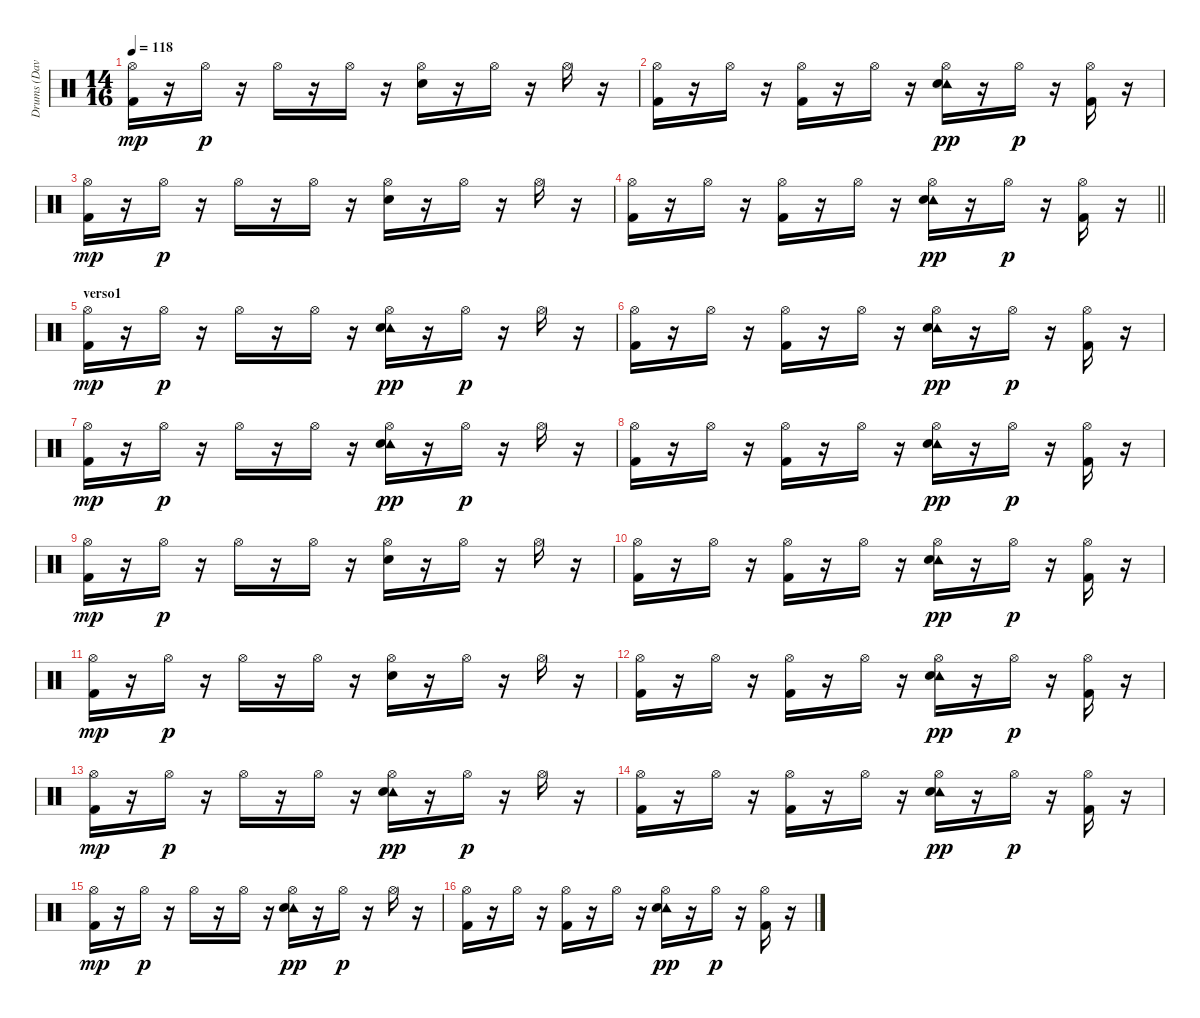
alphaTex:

\track ("Drums (Dave Turncrantz)" "Drums (Dav") {instrument percussion}
\staff {score}
\articulation defaults
\ts (14 16)
\tempo 118
\clef neutral
\ks c
("Hi-Hat (open)" "Kick (hit) 2").16{dy mp} r.16 "Hi-Hat (open)".16{dy p} r.16 "Hi-Hat (open)".16 r.16 "Hi-Hat (open)".16 r.16 ("Hi-Hat (open)" "Snare (hit) 2").16 r.16 "Hi-Hat (open)".16 r.16 "Hi-Hat (open)".16 r.16 |
("Hi-Hat (open)" "Kick (hit) 2").16 r.16 "Hi-Hat (open)".16 r.16 ("Hi-Hat (open)" "Kick (hit) 2").16 r.16 "Hi-Hat (open)".16 r.16 ("Hi-Hat (open)" "Tambourine (hit)" "Snare (hit) 2").16{dy pp} r.16 "Hi-Hat (open)".16{dy p} r.16 ("Hi-Hat (open)" "Kick (hit) 2").16 r.16 |
("Hi-Hat (open)" "Kick (hit) 2").16{dy mp} r.16 "Hi-Hat (open)".16{dy p} r.16 "Hi-Hat (open)".16 r.16 "Hi-Hat (open)".16 r.16 ("Hi-Hat (open)" "Snare (hit) 2").16 r.16 "Hi-Hat (open)".16 r.16 "Hi-Hat (open)".16 r.16 |
\barLineRight lightlight
("Hi-Hat (open)" "Kick (hit) 2").16 r.16 "Hi-Hat (open)".16 r.16 ("Hi-Hat (open)" "Kick (hit) 2").16 r.16 "Hi-Hat (open)".16 r.16 ("Hi-Hat (open)" "Tambourine (hit)" "Snare (hit) 2").16{dy pp} r.16 "Hi-Hat (open)".16{dy p} r.16 ("Hi-Hat (open)" "Kick (hit) 2").16 r.16 |
\section ("" "verso1")
("Hi-Hat (open)" "Kick (hit) 2").16{dy mp} r.16 "Hi-Hat (open)".16{dy p} r.16 "Hi-Hat (open)".16 r.16 "Hi-Hat (open)".16 r.16 ("Hi-Hat (open)" "Tambourine (hit)" "Snare (hit) 2").16{dy pp} r.16 "Hi-Hat (open)".16{dy p} r.16 "Hi-Hat (open)".16 r.16 |
("Hi-Hat (open)" "Kick (hit) 2").16 r.16 "Hi-Hat (open)".16 r.16 ("Hi-Hat (open)" "Kick (hit) 2").16 r.16 "Hi-Hat (open)".16 r.16 ("Hi-Hat (open)" "Tambourine (hit)" "Snare (hit) 2").16{dy pp} r.16 "Hi-Hat (open)".16{dy p} r.16 ("Hi-Hat (open)" "Kick (hit) 2").16 r.16 |
("Hi-Hat (open)" "Kick (hit) 2").16{dy mp} r.16 "Hi-Hat (open)".16{dy p} r.16 "Hi-Hat (open)".16 r.16 "Hi-Hat (open)".16 r.16 ("Hi-Hat (open)" "Tambourine (hit)" "Snare (hit) 2").16{dy pp} r.16 "Hi-Hat (open)".16{dy p} r.16 "Hi-Hat (open)".16 r.16 |
("Hi-Hat (open)" "Kick (hit) 2").16 r.16 "Hi-Hat (open)".16 r.16 ("Hi-Hat (open)" "Kick (hit) 2").16 r.16 "Hi-Hat (open)".16 r.16 ("Hi-Hat (open)" "Tambourine (hit)" "Snare (hit) 2").16{dy pp} r.16 "Hi-Hat (open)".16{dy p} r.16 ("Hi-Hat (open)" "Kick (hit) 2").16 r.16 |
("Hi-Hat (open)" "Kick (hit) 2").16{dy mp} r.16 "Hi-Hat (open)".16{dy p} r.16 "Hi-Hat (open)".16 r.16 "Hi-Hat (open)".16 r.16 ("Hi-Hat (open)" "Snare (hit) 2").16 r.16 "Hi-Hat (open)".16 r.16 "Hi-Hat (open)".16 r.16 |
("Hi-Hat (open)" "Kick (hit) 2").16 r.16 "Hi-Hat (open)".16 r.16 ("Hi-Hat (open)" "Kick (hit) 2").16 r.16 "Hi-Hat (open)".16 r.16 ("Hi-Hat (open)" "Tambourine (hit)" "Snare (hit) 2").16{dy pp} r.16 "Hi-Hat (open)".16{dy p} r.16 ("Hi-Hat (open)" "Kick (hit) 2").16 r.16 |
("Hi-Hat (open)" "Kick (hit) 2").16{dy mp} r.16 "Hi-Hat (open)".16{dy p} r.16 "Hi-Hat (open)".16 r.16 "Hi-Hat (open)".16 r.16 ("Hi-Hat (open)" "Snare (hit) 2").16 r.16 "Hi-Hat (open)".16 r.16 "Hi-Hat (open)".16 r.16 |
("Hi-Hat (open)" "Kick (hit) 2").16 r.16 "Hi-Hat (open)".16 r.16 ("Hi-Hat (open)" "Kick (hit) 2").16 r.16 "Hi-Hat (open)".16 r.16 ("Hi-Hat (open)" "Tambourine (hit)" "Snare (hit) 2").16{dy pp} r.16 "Hi-Hat (open)".16{dy p} r.16 ("Hi-Hat (open)" "Kick (hit) 2").16 r.16 |
("Hi-Hat (open)" "Kick (hit) 2").16{dy mp} r.16 "Hi-Hat (open)".16{dy p} r.16 "Hi-Hat (open)".16 r.16 "Hi-Hat (open)".16 r.16 ("Hi-Hat (open)" "Tambourine (hit)" "Snare (hit) 2").16{dy pp} r.16 "Hi-Hat (open)".16{dy p} r.16 "Hi-Hat (open)".16 r.16 |
("Hi-Hat (open)" "Kick (hit) 2").16 r.16 "Hi-Hat (open)".16 r.16 ("Hi-Hat (open)" "Kick (hit) 2").16 r.16 "Hi-Hat (open)".16 r.16 ("Hi-Hat (open)" "Tambourine (hit)" "Snare (hit) 2").16{dy pp} r.16 "Hi-Hat (open)".16{dy p} r.16 ("Hi-Hat (open)" "Kick (hit) 2").16 r.16 |
("Hi-Hat (open)" "Kick (hit) 2").16{dy mp} r.16 "Hi-Hat (open)".16{dy p} r.16 "Hi-Hat (open)".16 r.16 "Hi-Hat (open)".16 r.16 ("Hi-Hat (open)" "Tambourine (hit)" "Snare (hit) 2").16{dy pp} r.16 "Hi-Hat (open)".16{dy p} r.16 "Hi-Hat (open)".16 r.16 |
("Hi-Hat (open)" "Kick (hit) 2").16 r.16 "Hi-Hat (open)".16 r.16 ("Hi-Hat (open)" "Kick (hit) 2").16 r.16 "Hi-Hat (open)".16 r.16 ("Hi-Hat (open)" "Tambourine (hit)" "Snare (hit) 2").16{dy pp} r.16 "Hi-Hat (open)".16{dy p} r.16 ("Hi-Hat (open)" "Kick (hit) 2").16 r.16
